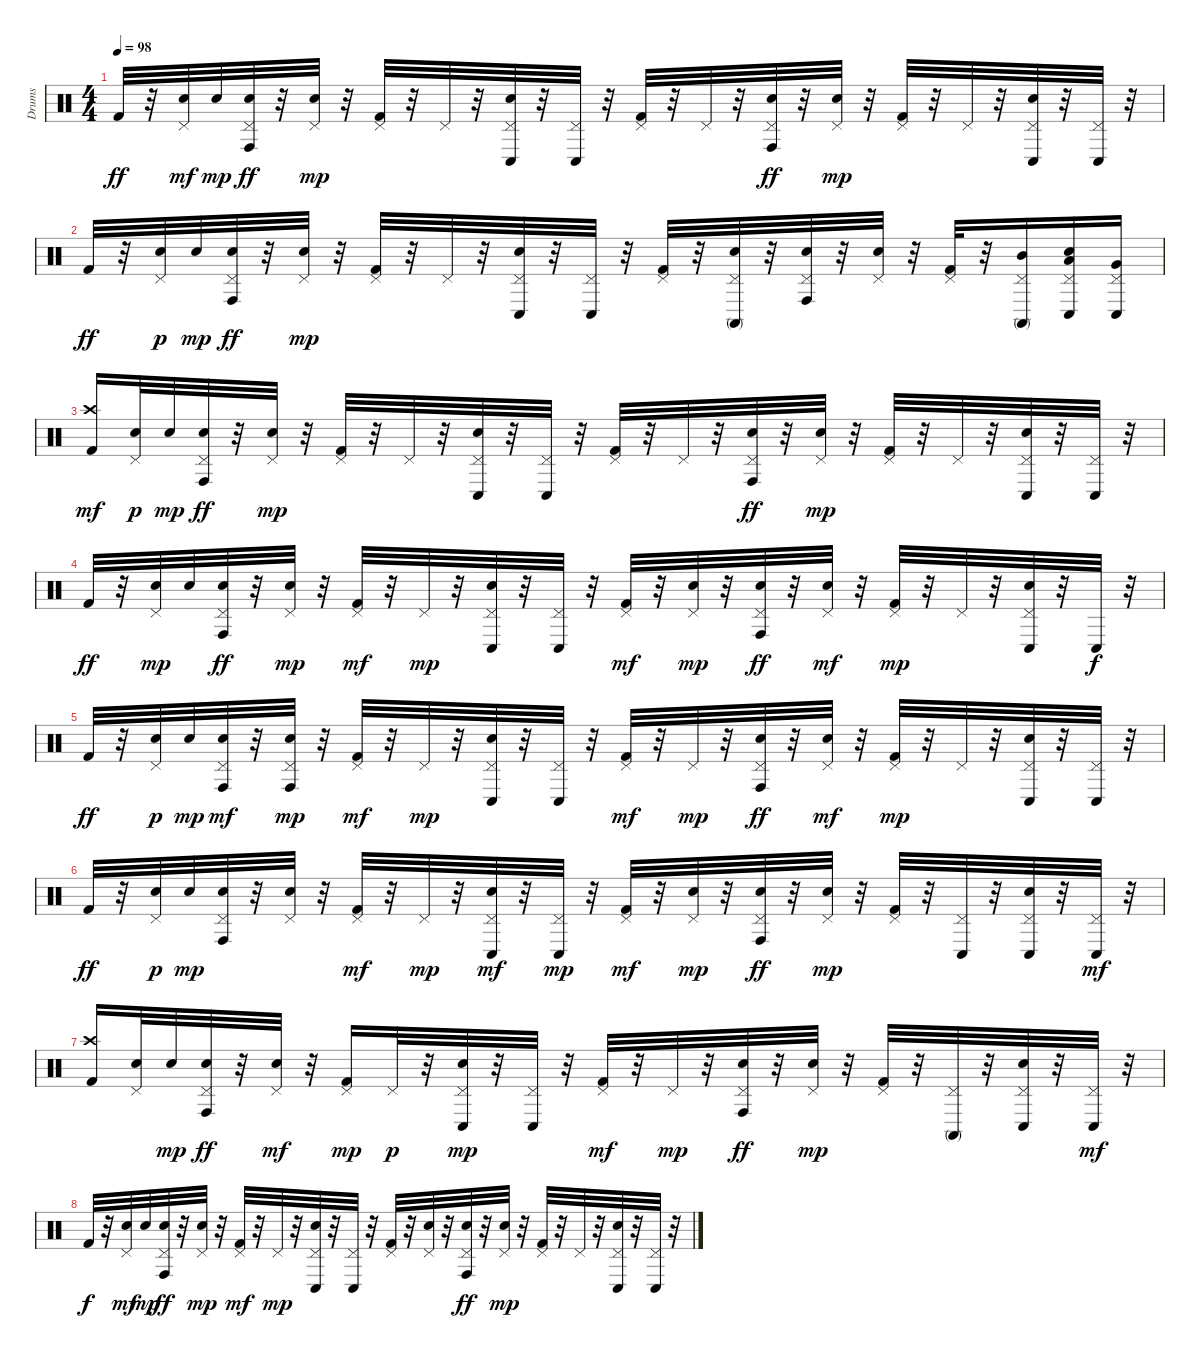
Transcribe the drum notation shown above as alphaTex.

\track ("Drums" "Drums") {instrument percussion}
\staff {score}
\articulation defaults
\ts (4 4)
\tempo 98
\clef neutral
\ks c "Kick (hit) 2".32{dy ff}
r.32 ("Electric Snare (hit)" "Pedal Hi-Hat (hit)").32{dy mf} "Electric Snare (hit)".32{dy mp} ("Electric Snare (hit)" "Pedal Hi-Hat (hit)" "Conga high (hit)").32{dy ff} r.32 ("Electric Snare (hit)" "Pedal Hi-Hat (hit)").32{dy mp} r.32 ("Kick (hit) 2" "Pedal Hi-Hat (hit)").32 r.32 "Pedal Hi-Hat (hit)".32 r.32 ("Electric Snare (hit)" "Pedal Hi-Hat (hit)" "Conga low (hit)").32 r.32 ("Pedal Hi-Hat (hit)" "Conga low (hit)").32 r.32 ("Kick (hit) 2" "Pedal Hi-Hat (hit)").32 r.32 "Pedal Hi-Hat (hit)".32 r.32 ("Electric Snare (hit)" "Pedal Hi-Hat (hit)" "Conga high (hit)").32{dy ff} r.32 ("Electric Snare (hit)" "Pedal Hi-Hat (hit)").32{dy mp} r.32 ("Kick (hit) 2" "Pedal Hi-Hat (hit)").32 r.32 "Pedal Hi-Hat (hit)".32 r.32 ("Electric Snare (hit)" "Pedal Hi-Hat (hit)" "Conga low (hit)").32 r.32 ("Pedal Hi-Hat (hit)" "Conga low (hit)").32 r.32 |
"Kick (hit) 2".32{dy ff} r.32 ("Electric Snare (hit)" "Pedal Hi-Hat (hit)").32{dy p} "Electric Snare (hit)".32{dy mp} ("Electric Snare (hit)" "Pedal Hi-Hat (hit)" "Conga high (hit)").32{dy ff} r.32 ("Electric Snare (hit)" "Pedal Hi-Hat (hit)").32{dy mp} r.32 ("Kick (hit) 2" "Pedal Hi-Hat (hit)").32 r.32 "Pedal Hi-Hat (hit)".32 r.32 ("Electric Snare (hit)" "Pedal Hi-Hat (hit)" "Conga low (hit)").32 r.32 ("Pedal Hi-Hat (hit)" "Conga low (hit)").32 r.32 ("Kick (hit) 2" "Pedal Hi-Hat (hit)").32 r.32 ("Electric Snare (hit)" "Pedal Hi-Hat (hit)" "Conga high (mute)").32 r.32 ("Electric Snare (hit)" "Pedal Hi-Hat (hit)" "Conga high (hit)").32 r.32 ("Electric Snare (hit)" "Pedal Hi-Hat (hit)").32 r.32 ("Kick (hit) 2" "Pedal Hi-Hat (hit)").32 r.32 ("Pedal Hi-Hat (hit)" "Mid Tom (hit)" "Conga high (mute)").16 ("Electric Snare (hit)" "Pedal Hi-Hat (hit)" "Low Tom (hit)" "Conga low (hit)").16 ("Pedal Hi-Hat (hit)" "Very Low Tom (hit)" "Conga low (hit)").16 |
("Kick (hit) 2" "Crash high (hit)").16{dy mf} ("Electric Snare (hit)" "Pedal Hi-Hat (hit)").32{dy p} "Electric Snare (hit)".32{dy mp} ("Electric Snare (hit)" "Pedal Hi-Hat (hit)" "Conga high (hit)").32{dy ff} r.32 ("Electric Snare (hit)" "Pedal Hi-Hat (hit)").32{dy mp} r.32 ("Kick (hit) 2" "Pedal Hi-Hat (hit)").32 r.32 "Pedal Hi-Hat (hit)".32 r.32 ("Electric Snare (hit)" "Pedal Hi-Hat (hit)" "Conga low (hit)").32 r.32 ("Pedal Hi-Hat (hit)" "Conga low (hit)").32 r.32 ("Kick (hit) 2" "Pedal Hi-Hat (hit)").32 r.32 "Pedal Hi-Hat (hit)".32 r.32 ("Electric Snare (hit)" "Pedal Hi-Hat (hit)" "Conga high (hit)").32{dy ff} r.32 ("Electric Snare (hit)" "Pedal Hi-Hat (hit)").32{dy mp} r.32 ("Kick (hit) 2" "Pedal Hi-Hat (hit)").32 r.32 "Pedal Hi-Hat (hit)".32 r.32 ("Electric Snare (hit)" "Pedal Hi-Hat (hit)" "Conga low (hit)").32 r.32 ("Pedal Hi-Hat (hit)" "Conga low (hit)").32 r.32 |
"Kick (hit) 2".32{dy ff} r.32 ("Electric Snare (hit)" "Pedal Hi-Hat (hit)").32{dy mp} "Electric Snare (hit)".32 ("Electric Snare (hit)" "Pedal Hi-Hat (hit)" "Conga high (hit)").32{dy ff} r.32 ("Electric Snare (hit)" "Pedal Hi-Hat (hit)").32{dy mp} r.32 ("Kick (hit) 2" "Pedal Hi-Hat (hit)").32{dy mf} r.32 "Pedal Hi-Hat (hit)".32{dy mp} r.32 ("Electric Snare (hit)" "Pedal Hi-Hat (hit)" "Conga low (hit)").32 r.32 ("Pedal Hi-Hat (hit)" "Conga low (hit)").32 r.32 ("Kick (hit) 2" "Pedal Hi-Hat (hit)").32{dy mf} r.32 ("Electric Snare (hit)" "Pedal Hi-Hat (hit)").32{dy mp} r.32 ("Electric Snare (hit)" "Pedal Hi-Hat (hit)" "Conga high (hit)").32{dy ff} r.32 ("Electric Snare (hit)" "Pedal Hi-Hat (hit)").32{dy mf} r.32 ("Kick (hit) 2" "Pedal Hi-Hat (hit)").32{dy mp} r.32 "Pedal Hi-Hat (hit)".32 r.32 ("Electric Snare (hit)" "Pedal Hi-Hat (hit)" "Conga low (hit)").32 r.32 "Conga low (hit)".32{dy f} r.32 |
"Kick (hit) 2".32{dy ff} r.32 ("Electric Snare (hit)" "Pedal Hi-Hat (hit)").32{dy p} "Electric Snare (hit)".32{dy mp} ("Electric Snare (hit)" "Pedal Hi-Hat (hit)" "Conga high (hit)").32{dy mf} r.32 ("Electric Snare (hit)" "Pedal Hi-Hat (hit)" "Conga high (hit)").32{dy mp} r.32 ("Kick (hit) 2" "Pedal Hi-Hat (hit)").32{dy mf} r.32 "Pedal Hi-Hat (hit)".32{dy mp} r.32 ("Electric Snare (hit)" "Pedal Hi-Hat (hit)" "Conga low (hit)").32 r.32 ("Pedal Hi-Hat (hit)" "Conga low (hit)").32 r.32 ("Kick (hit) 2" "Pedal Hi-Hat (hit)").32{dy mf} r.32 "Pedal Hi-Hat (hit)".32{dy mp} r.32 ("Electric Snare (hit)" "Pedal Hi-Hat (hit)" "Conga high (hit)").32{dy ff} r.32 ("Electric Snare (hit)" "Pedal Hi-Hat (hit)").32{dy mf} r.32 ("Kick (hit) 2" "Pedal Hi-Hat (hit)").32{dy mp} r.32 "Pedal Hi-Hat (hit)".32 r.32 ("Electric Snare (hit)" "Pedal Hi-Hat (hit)" "Conga low (hit)").32 r.32 ("Pedal Hi-Hat (hit)" "Conga low (hit)").32 r.32 |
"Kick (hit) 2".32{dy ff} r.32 ("Electric Snare (hit)" "Pedal Hi-Hat (hit)").32{dy p} "Electric Snare (hit)".32{dy mp} ("Electric Snare (hit)" "Pedal Hi-Hat (hit)" "Conga high (hit)").32 r.32 ("Electric Snare (hit)" "Pedal Hi-Hat (hit)").32 r.32 ("Kick (hit) 2" "Pedal Hi-Hat (hit)").32{dy mf} r.32 "Pedal Hi-Hat (hit)".32{dy mp} r.32 ("Electric Snare (hit)" "Pedal Hi-Hat (hit)" "Conga low (hit)").32{dy mf} r.32 ("Pedal Hi-Hat (hit)" "Conga low (hit)").32{dy mp} r.32 ("Kick (hit) 2" "Pedal Hi-Hat (hit)").32{dy mf} r.32 ("Electric Snare (hit)" "Pedal Hi-Hat (hit)").32{dy mp} r.32 ("Electric Snare (hit)" "Pedal Hi-Hat (hit)" "Conga high (hit)").32{dy ff} r.32 ("Electric Snare (hit)" "Pedal Hi-Hat (hit)").32{dy mp} r.32 ("Kick (hit) 2" "Pedal Hi-Hat (hit)").32 r.32 ("Pedal Hi-Hat (hit)" "Conga low (hit)").32 r.32 ("Electric Snare (hit)" "Pedal Hi-Hat (hit)" "Conga low (hit)").32 r.32 ("Pedal Hi-Hat (hit)" "Conga low (hit)").32{dy mf} r.32 |
("Kick (hit) 2" "Crash high (hit)").16 ("Electric Snare (hit)" "Pedal Hi-Hat (hit)").32 "Electric Snare (hit)".32{dy mp} ("Electric Snare (hit)" "Pedal Hi-Hat (hit)" "Conga high (hit)").32{dy ff} r.32 ("Electric Snare (hit)" "Pedal Hi-Hat (hit)").32{dy mf} r.32 ("Kick (hit) 2" "Pedal Hi-Hat (hit)").16{dy mp} "Pedal Hi-Hat (hit)".32{dy p} r.32 ("Electric Snare (hit)" "Pedal Hi-Hat (hit)" "Conga low (hit)").32{dy mp} r.32 ("Pedal Hi-Hat (hit)" "Conga low (hit)").32 r.32 ("Kick (hit) 2" "Pedal Hi-Hat (hit)").32{dy mf} r.32 "Pedal Hi-Hat (hit)".32{dy mp} r.32 ("Electric Snare (hit)" "Pedal Hi-Hat (hit)" "Conga high (hit)").32{dy ff} r.32 ("Electric Snare (hit)" "Pedal Hi-Hat (hit)").32{dy mp} r.32 ("Kick (hit) 2" "Pedal Hi-Hat (hit)").32 r.32 ("Pedal Hi-Hat (hit)" "Conga high (mute)").32 r.32 ("Electric Snare (hit)" "Pedal Hi-Hat (hit)" "Conga low (hit)").32 r.32 ("Pedal Hi-Hat (hit)" "Conga low (hit)").32{dy mf} r.32 |
"Kick (hit) 2".32{dy f} r.32 ("Electric Snare (hit)" "Pedal Hi-Hat (hit)").32{dy mf} "Electric Snare (hit)".32{dy mp} ("Electric Snare (hit)" "Pedal Hi-Hat (hit)" "Conga high (hit)").32{dy ff} r.32 ("Electric Snare (hit)" "Pedal Hi-Hat (hit)").32{dy mp} r.32 ("Kick (hit) 2" "Pedal Hi-Hat (hit)").32{dy mf} r.32 "Pedal Hi-Hat (hit)".32{dy mp} r.32 ("Electric Snare (hit)" "Pedal Hi-Hat (hit)" "Conga low (hit)").32 r.32 ("Pedal Hi-Hat (hit)" "Conga low (hit)").32 r.32 ("Kick (hit) 2" "Pedal Hi-Hat (hit)").32 r.32 ("Electric Snare (hit)" "Pedal Hi-Hat (hit)").32{volume 12} r.32 ("Electric Snare (hit)" "Pedal Hi-Hat (hit)" "Conga high (hit)").32{dy ff} r.32 ("Electric Snare (hit)" "Pedal Hi-Hat (hit)").32{dy mp} r.32 ("Kick (hit) 2" "Pedal Hi-Hat (hit)").32 r.32 "Pedal Hi-Hat (hit)".32 r.32 ("Electric Snare (hit)" "Pedal Hi-Hat (hit)" "Conga low (hit)").32 r.32 ("Pedal Hi-Hat (hit)" "Conga low (hit)").32 r.32
